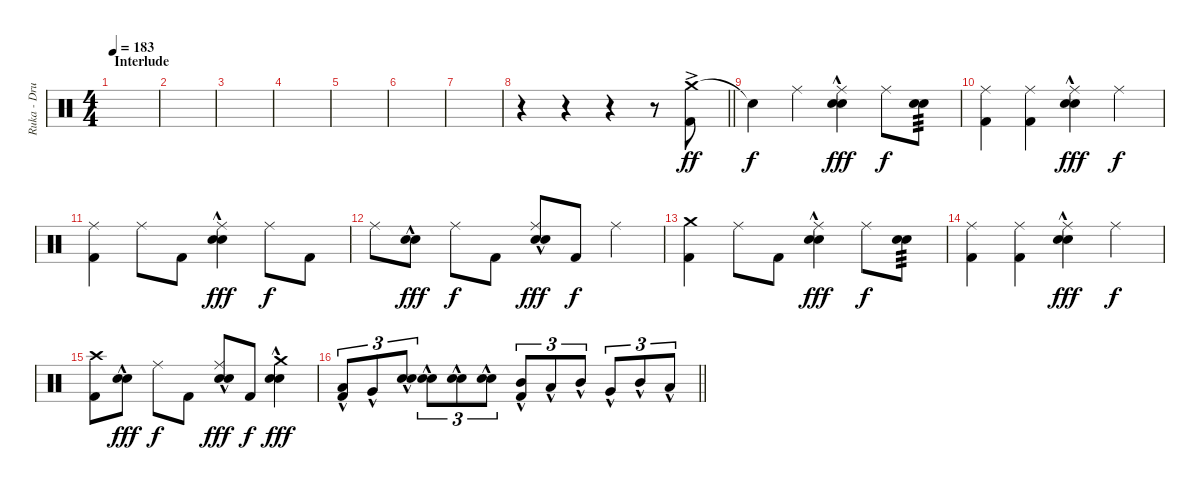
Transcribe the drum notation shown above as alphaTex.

\track ("Ruka - Drums" "Ruka - Dru") {instrument percussion}
\staff {score}
\articulation defaults
\ts (4 4)
\section ("" "Interlude")
\tempo 183
\clef neutral
\ks c
|
|
|
|
|
|
|
\barLineRight lightlight
r.4 r.4 r.4 r.8 ("Crash medium (hit)"{ac} "Kick (hit) 2").8{dy ff} |
\section ("" "")
"Snare (hit)"{t}.4{dy f} "Ride (middle)".4 ("Ride (middle)" "Electric Snare (hit)"{hac} "Snare (hit) 2"{hac}).4{dy fff} "Ride (middle)".8{dy f} ("Electric Snare (hit)" "Snare (hit) 2").8{tp 3} |
("Ride (middle)" "Kick (hit) 2").4 ("Ride (middle)" "Kick (hit) 2").4 ("Ride (middle)" "Electric Snare (hit)"{hac} "Snare (hit) 2"{hac}).4{dy fff} "Ride (middle)".4{dy f} |
("Ride (middle)" "Kick (hit) 2").4 "Ride (middle)".8 "Kick (hit) 2".8 ("Ride (middle)" "Electric Snare (hit)"{hac} "Snare (hit) 2"{hac}).4{dy fff} "Ride (middle)".8{dy f} "Kick (hit) 2".8 |
"Ride (middle)".8 ("Electric Snare (hit)"{hac} "Snare (hit) 2"{hac}).8{dy fff} "Ride (middle)".8{dy f} "Kick (hit) 2".8 ("Ride (middle)" "Electric Snare (hit)"{hac} "Snare (hit) 2"{hac}).8{dy fff} "Kick (hit) 2".8{dy f} "Ride (middle)".4 |
("Crash medium (hit)" "Kick (hit) 2").4 "Ride (middle)".8 "Kick (hit) 2".8 ("Ride (middle)" "Electric Snare (hit)"{hac} "Snare (hit) 2"{hac}).4{dy fff} "Ride (middle)".8{dy f} ("Electric Snare (hit)" "Snare (hit) 2").8{tp 3} |
("Ride (middle)" "Kick (hit) 2").4 ("Ride (middle)" "Kick (hit) 2").4 ("Ride (middle)" "Electric Snare (hit)"{hac} "Snare (hit) 2"{hac}).4{dy fff} "Ride (middle)".4{dy f} |
("Crash high (hit)" "Kick (hit) 2").8 ("Electric Snare (hit)"{hac} "Snare (hit) 2"{hac}).8{dy fff} "Ride (middle)".8{dy f} "Kick (hit) 2".8 ("Ride (middle)" "Electric Snare (hit)"{hac} "Snare (hit) 2"{hac}).8{dy fff} "Kick (hit) 2".8{dy f} ("Crash medium (hit)" "Electric Snare (hit)"{hac} "Snare (hit) 2"{hac}).4{dy fff} |
\barLineRight lightlight
("Low Tom (hit)"{hac} "Kick (hit) 2").8{tu (3 2)} "Very Low Tom (hit)"{hac}.8{tu (3 2)} ("Electric Snare (hit)"{hac} "Snare (hit) 2"{hac}).8{tu (3 2)} ("Electric Snare (hit)"{hac} "Snare (hit) 2"{hac}).8{tu (3 2)} ("Electric Snare (hit)"{hac} "Snare (hit) 2"{hac}).8{tu (3 2)} ("Electric Snare (hit)"{hac} "Snare (hit) 2"{hac}).8{tu (3 2)} ("Mid Tom (hit)"{hac} "Kick (hit) 2").8{tu (3 2)} "Low Tom (hit)"{hac}.8{tu (3 2)} "Mid Tom (hit)"{hac}.8{tu (3 2)} "Very Low Tom (hit)"{hac}.8{tu (3 2)} "Mid Tom (hit)"{hac}.8{tu (3 2)} "Low Tom (hit)"{hac}.8{tu (3 2)}
